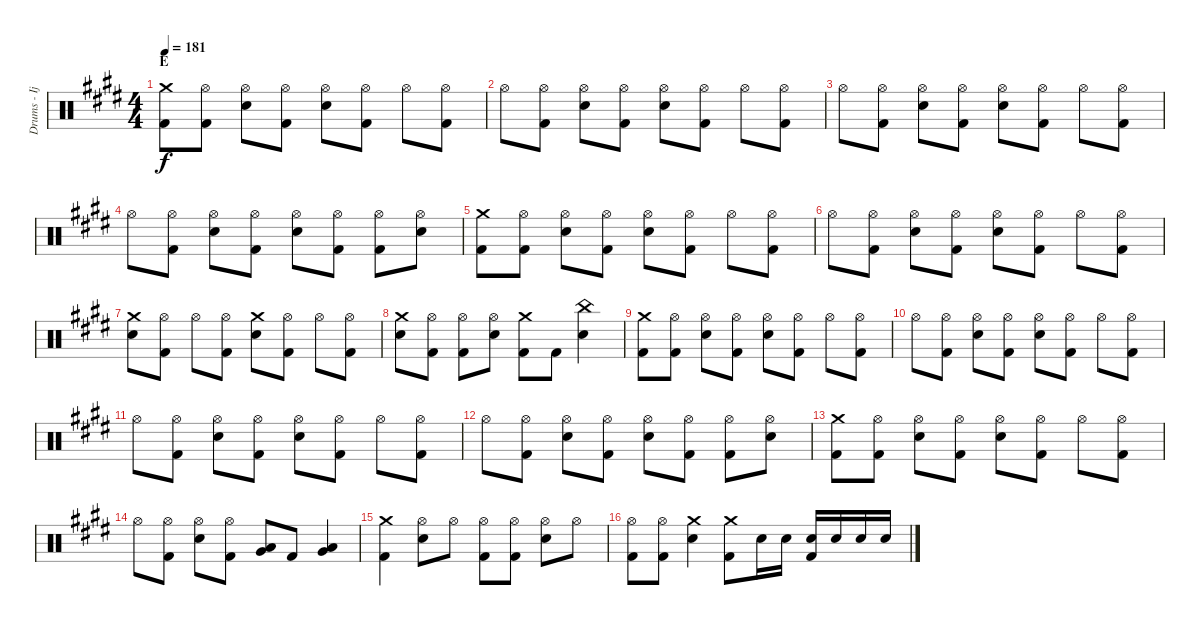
\track ("Drums - Ijichi" "Drums - Ij") {instrument percussion}
\staff {score}
\articulation defaults
\ts (4 4)
\section ("" "E")
\tempo 181
\clef neutral
\ks e
("Crash medium (hit)" "Kick (hit) 2").8{dy f} ("Hi-Hat (open)" "Kick (hit) 2").8 ("Hi-Hat (open)" "Electric Snare (hit)").8 ("Hi-Hat (open)" "Kick (hit) 2").8 ("Hi-Hat (open)" "Electric Snare (hit)").8 ("Hi-Hat (open)" "Kick (hit) 2").8 "Hi-Hat (open)".8 ("Hi-Hat (open)" "Kick (hit) 2").8 |
"Hi-Hat (open)".8 ("Hi-Hat (open)" "Kick (hit) 2").8 ("Hi-Hat (open)" "Electric Snare (hit)").8 ("Hi-Hat (open)" "Kick (hit) 2").8 ("Hi-Hat (open)" "Electric Snare (hit)").8 ("Hi-Hat (open)" "Kick (hit) 2").8 "Hi-Hat (open)".8 ("Hi-Hat (open)" "Kick (hit) 2").8 |
"Hi-Hat (open)".8 ("Hi-Hat (open)" "Kick (hit) 2").8 ("Hi-Hat (open)" "Electric Snare (hit)").8 ("Hi-Hat (open)" "Kick (hit) 2").8 ("Hi-Hat (open)" "Electric Snare (hit)").8 ("Hi-Hat (open)" "Kick (hit) 2").8 "Hi-Hat (open)".8 ("Hi-Hat (open)" "Kick (hit) 2").8 |
"Hi-Hat (open)".8 ("Hi-Hat (open)" "Kick (hit) 2").8 ("Hi-Hat (open)" "Electric Snare (hit)").8 ("Hi-Hat (open)" "Kick (hit) 2").8 ("Hi-Hat (open)" "Electric Snare (hit)").8 ("Hi-Hat (open)" "Kick (hit) 2").8 ("Hi-Hat (open)" "Kick (hit) 2").8 ("Hi-Hat (open)" "Electric Snare (hit)").8 |
("Crash medium (hit)" "Kick (hit) 2").8 ("Hi-Hat (open)" "Kick (hit) 2").8 ("Hi-Hat (open)" "Electric Snare (hit)").8 ("Hi-Hat (open)" "Kick (hit) 2").8 ("Hi-Hat (open)" "Electric Snare (hit)").8 ("Hi-Hat (open)" "Kick (hit) 2").8 "Hi-Hat (open)".8 ("Hi-Hat (open)" "Kick (hit) 2").8 |
"Hi-Hat (open)".8 ("Hi-Hat (open)" "Kick (hit) 2").8 ("Hi-Hat (open)" "Electric Snare (hit)").8 ("Hi-Hat (open)" "Kick (hit) 2").8 ("Hi-Hat (open)" "Electric Snare (hit)").8 ("Hi-Hat (open)" "Kick (hit) 2").8 "Hi-Hat (open)".8 ("Hi-Hat (open)" "Kick (hit) 2").8 |
("Crash medium (hit)" "Electric Snare (hit)").8 ("Hi-Hat (open)" "Kick (hit) 2").8 "Hi-Hat (open)".8 ("Hi-Hat (open)" "Kick (hit) 2").8 ("Crash medium (hit)" "Electric Snare (hit)").8 ("Hi-Hat (open)" "Kick (hit) 2").8 "Hi-Hat (open)".8 ("Hi-Hat (open)" "Kick (hit) 2").8 |
("Crash medium (hit)" "Electric Snare (hit)").8 ("Hi-Hat (open)" "Kick (hit) 2").8 ("Hi-Hat (open)" "Kick (hit) 2").8 ("Hi-Hat (open)" "Electric Snare (hit)").8 ("Crash medium (hit)" "Kick (hit) 2").8 "Kick (hit) 2".8 ("China (hit)" "Electric Snare (hit)").4 |
("Crash medium (hit)" "Kick (hit) 2").8 ("Hi-Hat (open)" "Kick (hit) 2").8 ("Hi-Hat (open)" "Electric Snare (hit)").8 ("Hi-Hat (open)" "Kick (hit) 2").8 ("Hi-Hat (open)" "Electric Snare (hit)").8 ("Hi-Hat (open)" "Kick (hit) 2").8 "Hi-Hat (open)".8 ("Hi-Hat (open)" "Kick (hit) 2").8 |
"Hi-Hat (open)".8 ("Hi-Hat (open)" "Kick (hit) 2").8 ("Hi-Hat (open)" "Electric Snare (hit)").8 ("Hi-Hat (open)" "Kick (hit) 2").8 ("Hi-Hat (open)" "Electric Snare (hit)").8 ("Hi-Hat (open)" "Kick (hit) 2").8 "Hi-Hat (open)".8 ("Hi-Hat (open)" "Kick (hit) 2").8 |
"Hi-Hat (open)".8 ("Hi-Hat (open)" "Kick (hit) 2").8 ("Hi-Hat (open)" "Electric Snare (hit)").8 ("Hi-Hat (open)" "Kick (hit) 2").8 ("Hi-Hat (open)" "Electric Snare (hit)").8 ("Hi-Hat (open)" "Kick (hit) 2").8 "Hi-Hat (open)".8 ("Hi-Hat (open)" "Kick (hit) 2").8 |
"Hi-Hat (open)".8 ("Hi-Hat (open)" "Kick (hit) 2").8 ("Hi-Hat (open)" "Electric Snare (hit)").8 ("Hi-Hat (open)" "Kick (hit) 2").8 ("Hi-Hat (open)" "Electric Snare (hit)").8 ("Hi-Hat (open)" "Kick (hit) 2").8 ("Hi-Hat (open)" "Kick (hit) 2").8 ("Hi-Hat (open)" "Electric Snare (hit)").8 |
("Crash medium (hit)" "Kick (hit) 2").8 ("Hi-Hat (open)" "Kick (hit) 2").8 ("Hi-Hat (open)" "Electric Snare (hit)").8 ("Hi-Hat (open)" "Kick (hit) 2").8 ("Hi-Hat (open)" "Electric Snare (hit)").8 ("Hi-Hat (open)" "Kick (hit) 2").8 "Hi-Hat (open)".8 ("Hi-Hat (open)" "Kick (hit) 2").8 |
"Hi-Hat (open)".8 ("Hi-Hat (open)" "Kick (hit) 2").8 ("Hi-Hat (open)" "Electric Snare (hit)").8 ("Hi-Hat (open)" "Kick (hit) 2").8 ("Low Tom (hit)" "Very Low Tom (hit)").8 "Kick (hit) 2".8 ("Low Tom (hit)" "Very Low Tom (hit)").4 |
("Crash medium (hit)" "Kick (hit) 2").4 ("Hi-Hat (open)" "Electric Snare (hit)").8 "Hi-Hat (open)".8 ("Hi-Hat (open)" "Kick (hit) 2").8 ("Hi-Hat (open)" "Kick (hit) 2").8 ("Hi-Hat (open)" "Electric Snare (hit)").8 "Hi-Hat (open)".8 |
("Hi-Hat (open)" "Kick (hit) 2").8 ("Hi-Hat (open)" "Kick (hit) 2").8 ("Crash medium (hit)" "Electric Snare (hit)").4 ("Crash medium (hit)" "Kick (hit) 2").8 "Electric Snare (hit)".16 "Electric Snare (hit)".16 ("Electric Snare (hit)" "Kick (hit) 2").16 "Electric Snare (hit)".16 "Electric Snare (hit)".16 "Electric Snare (hit)".16
